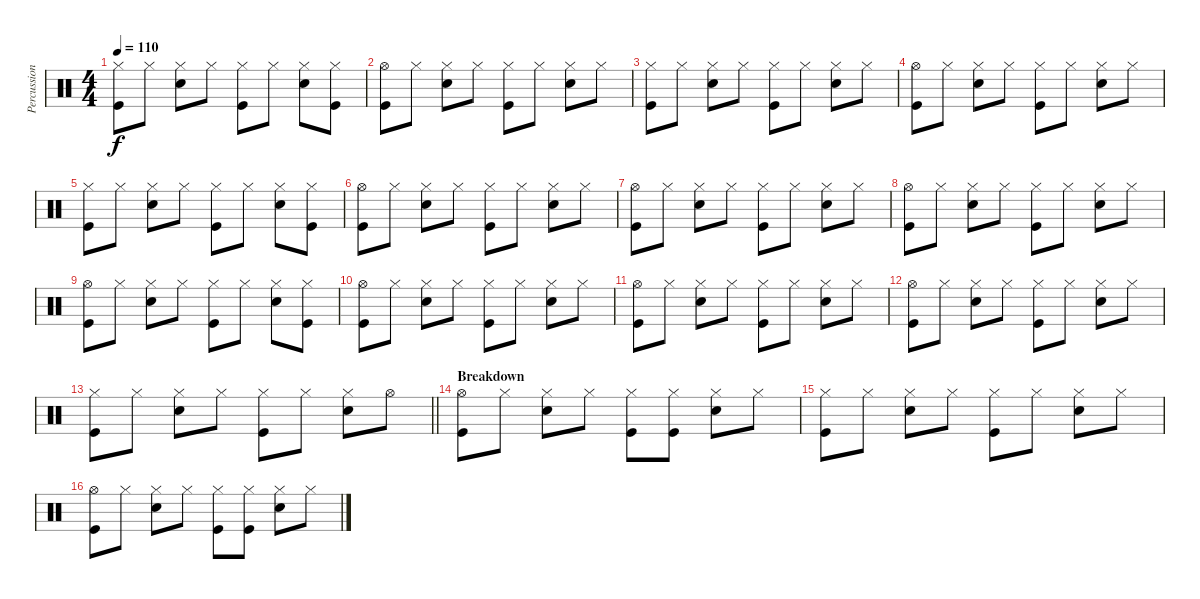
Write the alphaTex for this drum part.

\track ("Percussion" "Percussion") {instrument percussion}
\staff {score}
\articulation defaults
\ts (4 4)
\tempo 110
\clef neutral
\ks c
("Hi-Hat (closed)" "Kick (hit)").8{dy f} "Hi-Hat (closed)".8 ("Hi-Hat (closed)" "Snare (hit) 2").8 "Hi-Hat (closed)".8 ("Hi-Hat (closed)" "Kick (hit)").8 "Hi-Hat (closed)".8 ("Hi-Hat (closed)" "Snare (hit) 2").8 ("Hi-Hat (closed)" "Kick (hit)").8 |
("Hi-Hat (open)" "Kick (hit)").8 "Hi-Hat (closed)".8 ("Hi-Hat (closed)" "Snare (hit) 2").8 "Hi-Hat (closed)".8 ("Hi-Hat (closed)" "Kick (hit)").8 "Hi-Hat (closed)".8 ("Hi-Hat (closed)" "Snare (hit) 2").8 "Hi-Hat (closed)".8 |
("Hi-Hat (closed)" "Kick (hit)").8 "Hi-Hat (closed)".8 ("Hi-Hat (closed)" "Snare (hit) 2").8 "Hi-Hat (closed)".8 ("Hi-Hat (closed)" "Kick (hit)").8 "Hi-Hat (closed)".8 ("Hi-Hat (closed)" "Snare (hit) 2").8 "Hi-Hat (closed)".8 |
("Hi-Hat (open)" "Kick (hit)").8 "Hi-Hat (closed)".8 ("Hi-Hat (closed)" "Snare (hit) 2").8 "Hi-Hat (closed)".8 ("Hi-Hat (closed)" "Kick (hit)").8 "Hi-Hat (closed)".8 ("Hi-Hat (closed)" "Snare (hit) 2").8 "Hi-Hat (closed)".8 |
("Hi-Hat (closed)" "Kick (hit)").8 "Hi-Hat (closed)".8 ("Hi-Hat (closed)" "Snare (hit) 2").8 "Hi-Hat (closed)".8 ("Hi-Hat (closed)" "Kick (hit)").8 "Hi-Hat (closed)".8 ("Hi-Hat (closed)" "Snare (hit) 2").8 ("Hi-Hat (closed)" "Kick (hit)").8 |
("Hi-Hat (open)" "Kick (hit)").8 "Hi-Hat (closed)".8 ("Hi-Hat (closed)" "Snare (hit) 2").8 "Hi-Hat (closed)".8 ("Hi-Hat (closed)" "Kick (hit)").8 "Hi-Hat (closed)".8 ("Hi-Hat (closed)" "Snare (hit) 2").8 "Hi-Hat (closed)".8 |
("Hi-Hat (open)" "Kick (hit)").8 "Hi-Hat (closed)".8 ("Hi-Hat (closed)" "Snare (hit) 2").8 "Hi-Hat (closed)".8 ("Hi-Hat (closed)" "Kick (hit)").8 "Hi-Hat (closed)".8 ("Hi-Hat (closed)" "Snare (hit) 2").8 "Hi-Hat (closed)".8 |
("Hi-Hat (open)" "Kick (hit)").8 "Hi-Hat (closed)".8 ("Hi-Hat (closed)" "Snare (hit) 2").8 "Hi-Hat (closed)".8 ("Hi-Hat (closed)" "Kick (hit)").8 "Hi-Hat (closed)".8 ("Hi-Hat (closed)" "Snare (hit) 2").8 "Hi-Hat (closed)".8 |
("Hi-Hat (open)" "Kick (hit)").8 "Hi-Hat (closed)".8 ("Hi-Hat (closed)" "Snare (hit) 2").8 "Hi-Hat (closed)".8 ("Hi-Hat (closed)" "Kick (hit)").8 "Hi-Hat (closed)".8 ("Hi-Hat (closed)" "Snare (hit) 2").8 ("Hi-Hat (closed)" "Kick (hit)").8 |
("Hi-Hat (open)" "Kick (hit)").8 "Hi-Hat (closed)".8 ("Hi-Hat (closed)" "Snare (hit) 2").8 "Hi-Hat (closed)".8 ("Hi-Hat (closed)" "Kick (hit)").8 "Hi-Hat (closed)".8 ("Hi-Hat (closed)" "Snare (hit) 2").8 "Hi-Hat (closed)".8 |
("Hi-Hat (open)" "Kick (hit)").8 "Hi-Hat (closed)".8 ("Hi-Hat (closed)" "Snare (hit) 2").8 "Hi-Hat (closed)".8 ("Hi-Hat (closed)" "Kick (hit)").8 "Hi-Hat (closed)".8 ("Hi-Hat (closed)" "Snare (hit) 2").8 "Hi-Hat (closed)".8 |
("Hi-Hat (open)" "Kick (hit)").8 "Hi-Hat (closed)".8 ("Hi-Hat (closed)" "Snare (hit) 2").8 "Hi-Hat (closed)".8 ("Hi-Hat (closed)" "Kick (hit)").8 "Hi-Hat (closed)".8 ("Hi-Hat (closed)" "Snare (hit) 2").8 "Hi-Hat (closed)".8 |
\barLineRight lightlight
("Hi-Hat (closed)" "Kick (hit)").8 "Hi-Hat (closed)".8 ("Hi-Hat (closed)" "Snare (hit) 2").8 "Hi-Hat (closed)".8 ("Hi-Hat (closed)" "Kick (hit)").8 "Hi-Hat (closed)".8 ("Hi-Hat (closed)" "Snare (hit) 2").8 "Hi-Hat (open)".8 |
\section ("" "Breakdown")
("Hi-Hat (open)" "Kick (hit)").8 "Hi-Hat (closed)".8 ("Hi-Hat (closed)" "Snare (hit) 2").8 "Hi-Hat (closed)".8 ("Hi-Hat (closed)" "Kick (hit)").8 ("Hi-Hat (closed)" "Kick (hit)").8 ("Hi-Hat (closed)" "Snare (hit) 2").8 "Hi-Hat (closed)".8 |
("Hi-Hat (closed)" "Kick (hit)").8 "Hi-Hat (closed)".8 ("Hi-Hat (closed)" "Snare (hit) 2").8 "Hi-Hat (closed)".8 ("Hi-Hat (closed)" "Kick (hit)").8 "Hi-Hat (closed)".8 ("Hi-Hat (closed)" "Snare (hit) 2").8 "Hi-Hat (closed)".8 |
("Hi-Hat (open)" "Kick (hit)").8 "Hi-Hat (closed)".8 ("Hi-Hat (closed)" "Snare (hit) 2").8 "Hi-Hat (closed)".8 ("Hi-Hat (closed)" "Kick (hit)").8 ("Hi-Hat (closed)" "Kick (hit)").8 ("Hi-Hat (closed)" "Snare (hit) 2").8 "Hi-Hat (closed)".8
